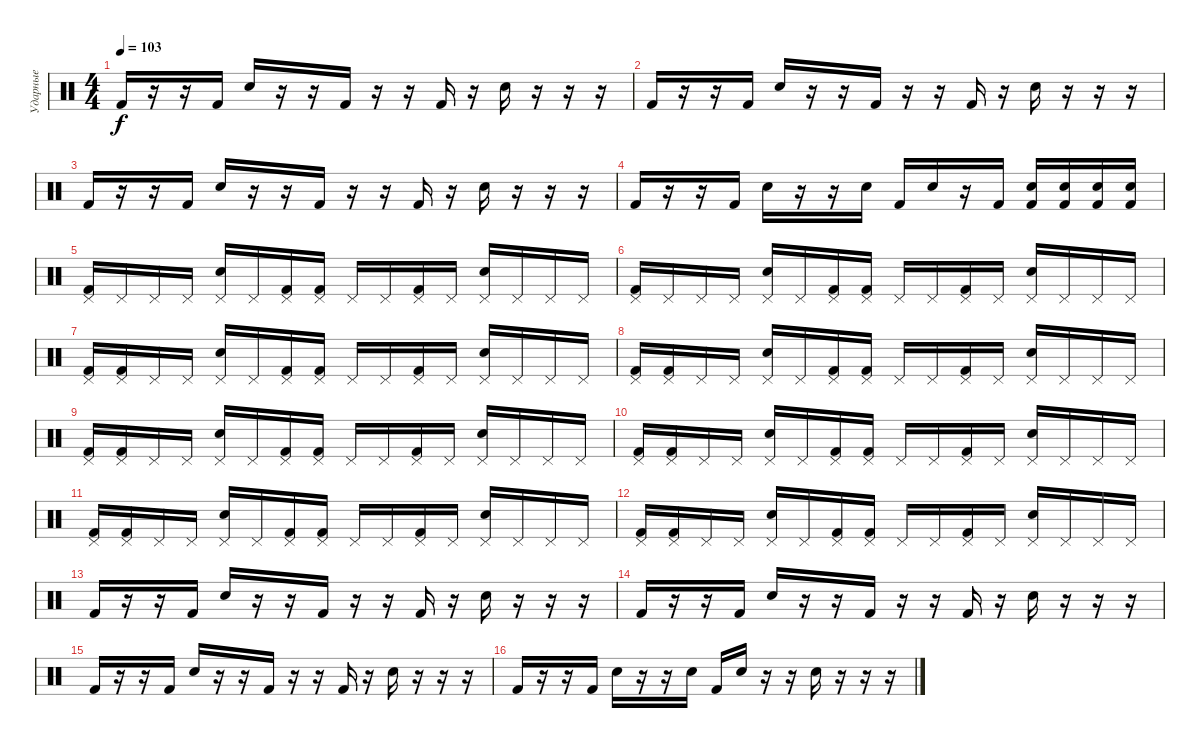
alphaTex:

\track ("Ударные" "Ударные") {instrument percussion}
\staff {score}
\articulation defaults
\ts (4 4)
\tempo 103
\clef neutral
\ks c "Kick (hit) 2".16{dy f}
r.16 r.16 "Kick (hit) 2".16 "Snare (hit) 2".16 r.16 r.16 "Kick (hit) 2".16 r.16 r.16 "Kick (hit) 2".16 r.16 "Snare (hit) 2".16 r.16 r.16 r.16 |
"Kick (hit) 2".16 r.16 r.16 "Kick (hit) 2".16 "Snare (hit) 2".16 r.16 r.16 "Kick (hit) 2".16 r.16 r.16 "Kick (hit) 2".16 r.16 "Snare (hit) 2".16 r.16 r.16 r.16 |
"Kick (hit) 2".16 r.16 r.16 "Kick (hit) 2".16 "Snare (hit) 2".16 r.16 r.16 "Kick (hit) 2".16 r.16 r.16 "Kick (hit) 2".16 r.16 "Snare (hit) 2".16 r.16 r.16 r.16 |
"Kick (hit) 2".16 r.16 r.16 "Kick (hit) 2".16 "Snare (hit) 2".16 r.16 r.16 "Snare (hit) 2".16 "Kick (hit) 2".16 "Snare (hit) 2".16 r.16 "Kick (hit) 2".16 ("Snare (hit) 2" "Kick (hit) 2").16 ("Snare (hit) 2" "Kick (hit) 2").16 ("Snare (hit) 2" "Kick (hit) 2").16 ("Snare (hit) 2" "Kick (hit) 2").16 |
("Pedal Hi-Hat (hit)" "Kick (hit) 2").16 "Pedal Hi-Hat (hit)".16 "Pedal Hi-Hat (hit)".16 "Pedal Hi-Hat (hit)".16 ("Pedal Hi-Hat (hit)" "Snare (hit) 2").16 "Pedal Hi-Hat (hit)".16 ("Pedal Hi-Hat (hit)" "Kick (hit) 2").16 ("Pedal Hi-Hat (hit)" "Kick (hit) 2").16 "Pedal Hi-Hat (hit)".16 "Pedal Hi-Hat (hit)".16 ("Pedal Hi-Hat (hit)" "Kick (hit) 2").16 "Pedal Hi-Hat (hit)".16 ("Pedal Hi-Hat (hit)" "Snare (hit) 2").16 "Pedal Hi-Hat (hit)".16 "Pedal Hi-Hat (hit)".16 "Pedal Hi-Hat (hit)".16 |
("Pedal Hi-Hat (hit)" "Kick (hit) 2").16 "Pedal Hi-Hat (hit)".16 "Pedal Hi-Hat (hit)".16 "Pedal Hi-Hat (hit)".16 ("Pedal Hi-Hat (hit)" "Snare (hit) 2").16 "Pedal Hi-Hat (hit)".16 ("Pedal Hi-Hat (hit)" "Kick (hit) 2").16 ("Pedal Hi-Hat (hit)" "Kick (hit) 2").16 "Pedal Hi-Hat (hit)".16 "Pedal Hi-Hat (hit)".16 ("Pedal Hi-Hat (hit)" "Kick (hit) 2").16 "Pedal Hi-Hat (hit)".16 ("Pedal Hi-Hat (hit)" "Snare (hit) 2").16 "Pedal Hi-Hat (hit)".16 "Pedal Hi-Hat (hit)".16 "Pedal Hi-Hat (hit)".16 |
("Pedal Hi-Hat (hit)" "Kick (hit) 2").16 ("Pedal Hi-Hat (hit)" "Kick (hit) 2").16 "Pedal Hi-Hat (hit)".16 "Pedal Hi-Hat (hit)".16 ("Pedal Hi-Hat (hit)" "Snare (hit) 2").16 "Pedal Hi-Hat (hit)".16 ("Pedal Hi-Hat (hit)" "Kick (hit) 2").16 ("Pedal Hi-Hat (hit)" "Kick (hit) 2").16 "Pedal Hi-Hat (hit)".16 "Pedal Hi-Hat (hit)".16 ("Pedal Hi-Hat (hit)" "Kick (hit) 2").16 "Pedal Hi-Hat (hit)".16 ("Pedal Hi-Hat (hit)" "Snare (hit) 2").16 "Pedal Hi-Hat (hit)".16 "Pedal Hi-Hat (hit)".16 "Pedal Hi-Hat (hit)".16 |
("Pedal Hi-Hat (hit)" "Kick (hit) 2").16 ("Pedal Hi-Hat (hit)" "Kick (hit) 2").16 "Pedal Hi-Hat (hit)".16 "Pedal Hi-Hat (hit)".16 ("Pedal Hi-Hat (hit)" "Snare (hit) 2").16 "Pedal Hi-Hat (hit)".16 ("Pedal Hi-Hat (hit)" "Kick (hit) 2").16 ("Pedal Hi-Hat (hit)" "Kick (hit) 2").16 "Pedal Hi-Hat (hit)".16 "Pedal Hi-Hat (hit)".16 ("Pedal Hi-Hat (hit)" "Kick (hit) 2").16 "Pedal Hi-Hat (hit)".16 ("Pedal Hi-Hat (hit)" "Snare (hit) 2").16 "Pedal Hi-Hat (hit)".16 "Pedal Hi-Hat (hit)".16 "Pedal Hi-Hat (hit)".16 |
("Pedal Hi-Hat (hit)" "Kick (hit) 2").16 ("Pedal Hi-Hat (hit)" "Kick (hit) 2").16 "Pedal Hi-Hat (hit)".16 "Pedal Hi-Hat (hit)".16 ("Pedal Hi-Hat (hit)" "Snare (hit) 2").16 "Pedal Hi-Hat (hit)".16 ("Pedal Hi-Hat (hit)" "Kick (hit) 2").16 ("Pedal Hi-Hat (hit)" "Kick (hit) 2").16 "Pedal Hi-Hat (hit)".16 "Pedal Hi-Hat (hit)".16 ("Pedal Hi-Hat (hit)" "Kick (hit) 2").16 "Pedal Hi-Hat (hit)".16 ("Pedal Hi-Hat (hit)" "Snare (hit) 2").16 "Pedal Hi-Hat (hit)".16 "Pedal Hi-Hat (hit)".16 "Pedal Hi-Hat (hit)".16 |
("Pedal Hi-Hat (hit)" "Kick (hit) 2").16 ("Pedal Hi-Hat (hit)" "Kick (hit) 2").16 "Pedal Hi-Hat (hit)".16 "Pedal Hi-Hat (hit)".16 ("Pedal Hi-Hat (hit)" "Snare (hit) 2").16 "Pedal Hi-Hat (hit)".16 ("Pedal Hi-Hat (hit)" "Kick (hit) 2").16 ("Pedal Hi-Hat (hit)" "Kick (hit) 2").16 "Pedal Hi-Hat (hit)".16 "Pedal Hi-Hat (hit)".16 ("Pedal Hi-Hat (hit)" "Kick (hit) 2").16 "Pedal Hi-Hat (hit)".16 ("Pedal Hi-Hat (hit)" "Snare (hit) 2").16 "Pedal Hi-Hat (hit)".16 "Pedal Hi-Hat (hit)".16 "Pedal Hi-Hat (hit)".16 |
("Pedal Hi-Hat (hit)" "Kick (hit) 2").16 ("Pedal Hi-Hat (hit)" "Kick (hit) 2").16 "Pedal Hi-Hat (hit)".16 "Pedal Hi-Hat (hit)".16 ("Pedal Hi-Hat (hit)" "Snare (hit) 2").16 "Pedal Hi-Hat (hit)".16 ("Pedal Hi-Hat (hit)" "Kick (hit) 2").16 ("Pedal Hi-Hat (hit)" "Kick (hit) 2").16 "Pedal Hi-Hat (hit)".16 "Pedal Hi-Hat (hit)".16 ("Pedal Hi-Hat (hit)" "Kick (hit) 2").16 "Pedal Hi-Hat (hit)".16 ("Pedal Hi-Hat (hit)" "Snare (hit) 2").16 "Pedal Hi-Hat (hit)".16 "Pedal Hi-Hat (hit)".16 "Pedal Hi-Hat (hit)".16 |
("Pedal Hi-Hat (hit)" "Kick (hit) 2").16 ("Pedal Hi-Hat (hit)" "Kick (hit) 2").16 "Pedal Hi-Hat (hit)".16 "Pedal Hi-Hat (hit)".16 ("Pedal Hi-Hat (hit)" "Snare (hit) 2").16 "Pedal Hi-Hat (hit)".16 ("Pedal Hi-Hat (hit)" "Kick (hit) 2").16 ("Pedal Hi-Hat (hit)" "Kick (hit) 2").16 "Pedal Hi-Hat (hit)".16 "Pedal Hi-Hat (hit)".16 ("Pedal Hi-Hat (hit)" "Kick (hit) 2").16 "Pedal Hi-Hat (hit)".16 ("Pedal Hi-Hat (hit)" "Snare (hit) 2").16 "Pedal Hi-Hat (hit)".16 "Pedal Hi-Hat (hit)".16 "Pedal Hi-Hat (hit)".16 |
"Kick (hit) 2".16 r.16 r.16 "Kick (hit) 2".16 "Snare (hit) 2".16 r.16 r.16 "Kick (hit) 2".16 r.16 r.16 "Kick (hit) 2".16 r.16 "Snare (hit) 2".16 r.16 r.16 r.16 |
"Kick (hit) 2".16 r.16 r.16 "Kick (hit) 2".16 "Snare (hit) 2".16 r.16 r.16 "Kick (hit) 2".16 r.16 r.16 "Kick (hit) 2".16 r.16 "Snare (hit) 2".16 r.16 r.16 r.16 |
"Kick (hit) 2".16 r.16 r.16 "Kick (hit) 2".16 "Snare (hit) 2".16 r.16 r.16 "Kick (hit) 2".16 r.16 r.16 "Kick (hit) 2".16 r.16 "Snare (hit) 2".16 r.16 r.16 r.16 |
"Kick (hit) 2".16 r.16 r.16 "Kick (hit) 2".16 "Snare (hit) 2".16 r.16 r.16 "Snare (hit) 2".16 "Kick (hit) 2".16 "Snare (hit) 2".16 r.16 r.16 "Snare (hit) 2".16 r.16 r.16 r.16
